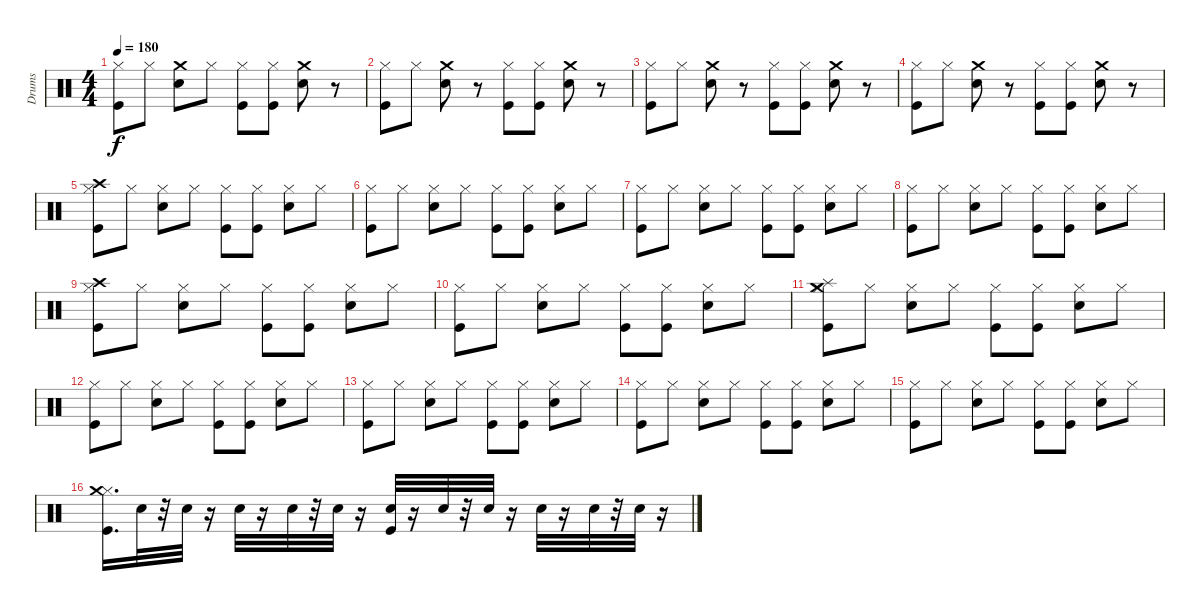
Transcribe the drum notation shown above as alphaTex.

\track ("Drums" "Drums") {instrument percussion}
\staff {score}
\articulation defaults
\ts (4 4)
\tempo 180
\clef neutral
\ks c
("Hi-Hat (closed)" "Kick (hit)").8{dy f} "Hi-Hat (closed)".8 ("Electric Snare (hit)" "Crash medium (hit)").8 "Hi-Hat (closed)".8 ("Kick (hit)" "Hi-Hat (closed)").8 ("Hi-Hat (closed)" "Kick (hit)").8 ("Crash medium (hit)" "Electric Snare (hit)").8 r.8 |
("Hi-Hat (closed)" "Kick (hit)").8 "Hi-Hat (closed)".8 ("Crash medium (hit)" "Electric Snare (hit)").8 r.8 ("Kick (hit)" "Hi-Hat (closed)").8 ("Hi-Hat (closed)" "Kick (hit)").8 ("Crash medium (hit)" "Electric Snare (hit)").8 r.8 |
("Hi-Hat (closed)" "Kick (hit)").8 "Hi-Hat (closed)".8 ("Crash medium (hit)" "Electric Snare (hit)").8 r.8 ("Kick (hit)" "Hi-Hat (closed)").8 ("Hi-Hat (closed)" "Kick (hit)").8 ("Crash medium (hit)" "Electric Snare (hit)").8 r.8 |
("Hi-Hat (closed)" "Kick (hit)").8 "Hi-Hat (closed)".8 ("Electric Snare (hit)" "Crash medium (hit)").8 r.8 ("Kick (hit)" "Hi-Hat (closed)").8 ("Hi-Hat (closed)" "Kick (hit)").8 ("Crash medium (hit)" "Electric Snare (hit)").8 r.8 |
("Crash high (hit)" "Hi-Hat (closed)" "Kick (hit)").8 "Hi-Hat (closed)".8 ("Hi-Hat (closed)" "Electric Snare (hit)").8 "Hi-Hat (closed)".8 ("Kick (hit)" "Hi-Hat (closed)").8 ("Hi-Hat (closed)" "Kick (hit)").8 ("Hi-Hat (closed)" "Electric Snare (hit)").8 "Hi-Hat (closed)".8 |
("Hi-Hat (closed)" "Kick (hit)").8 "Hi-Hat (closed)".8 ("Hi-Hat (closed)" "Electric Snare (hit)").8 "Hi-Hat (closed)".8 ("Kick (hit)" "Hi-Hat (closed)").8 ("Hi-Hat (closed)" "Kick (hit)").8 ("Hi-Hat (closed)" "Electric Snare (hit)").8 "Hi-Hat (closed)".8 |
("Hi-Hat (closed)" "Kick (hit)").8 "Hi-Hat (closed)".8 ("Hi-Hat (closed)" "Electric Snare (hit)").8 "Hi-Hat (closed)".8 ("Kick (hit)" "Hi-Hat (closed)").8 ("Hi-Hat (closed)" "Kick (hit)").8 ("Hi-Hat (closed)" "Electric Snare (hit)").8 "Hi-Hat (closed)".8 |
("Hi-Hat (closed)" "Kick (hit)").8 "Hi-Hat (closed)".8 ("Hi-Hat (closed)" "Electric Snare (hit)").8 "Hi-Hat (closed)".8 ("Kick (hit)" "Hi-Hat (closed)").8 ("Hi-Hat (closed)" "Kick (hit)").8 ("Hi-Hat (closed)" "Electric Snare (hit)").8 "Hi-Hat (closed)".8 |
("Crash high (hit)" "Hi-Hat (closed)" "Kick (hit)").8 "Hi-Hat (closed)".8 ("Hi-Hat (closed)" "Electric Snare (hit)").8 "Hi-Hat (closed)".8 ("Kick (hit)" "Hi-Hat (closed)").8 ("Hi-Hat (closed)" "Kick (hit)").8 ("Hi-Hat (closed)" "Electric Snare (hit)").8 "Hi-Hat (closed)".8 |
("Hi-Hat (closed)" "Kick (hit)").8 "Hi-Hat (closed)".8 ("Hi-Hat (closed)" "Electric Snare (hit)").8 "Hi-Hat (closed)".8 ("Kick (hit)" "Hi-Hat (closed)").8 ("Hi-Hat (closed)" "Kick (hit)").8 ("Hi-Hat (closed)" "Electric Snare (hit)").8 "Hi-Hat (closed)".8 |
("Crash medium (hit)" "Splash (hit)" "Hi-Hat (closed)" "Kick (hit)").8 "Hi-Hat (closed)".8 ("Hi-Hat (closed)" "Electric Snare (hit)").8 "Hi-Hat (closed)".8 ("Kick (hit)" "Hi-Hat (closed)").8 ("Hi-Hat (closed)" "Kick (hit)").8 ("Hi-Hat (closed)" "Electric Snare (hit)").8 "Hi-Hat (closed)".8 |
("Hi-Hat (closed)" "Kick (hit)").8 "Hi-Hat (closed)".8 ("Hi-Hat (closed)" "Electric Snare (hit)").8 "Hi-Hat (closed)".8 ("Kick (hit)" "Hi-Hat (closed)").8 ("Hi-Hat (closed)" "Kick (hit)").8 ("Hi-Hat (closed)" "Electric Snare (hit)").8 "Hi-Hat (closed)".8 |
("Hi-Hat (closed)" "Kick (hit)").8 "Hi-Hat (closed)".8 ("Hi-Hat (closed)" "Electric Snare (hit)").8 "Hi-Hat (closed)".8 ("Kick (hit)" "Hi-Hat (closed)").8 ("Hi-Hat (closed)" "Kick (hit)").8 ("Hi-Hat (closed)" "Electric Snare (hit)").8 "Hi-Hat (closed)".8 |
("Hi-Hat (closed)" "Kick (hit)").8 "Hi-Hat (closed)".8 ("Hi-Hat (closed)" "Electric Snare (hit)").8 "Hi-Hat (closed)".8 ("Kick (hit)" "Hi-Hat (closed)").8 ("Hi-Hat (closed)" "Kick (hit)").8 ("Hi-Hat (closed)" "Electric Snare (hit)").8 "Hi-Hat (closed)".8 |
("Hi-Hat (closed)" "Kick (hit)").8 "Hi-Hat (closed)".8 ("Hi-Hat (closed)" "Electric Snare (hit)").8 "Hi-Hat (closed)".8 ("Kick (hit)" "Hi-Hat (closed)").8 ("Hi-Hat (closed)" "Kick (hit)").8 ("Hi-Hat (closed)" "Electric Snare (hit)").8 "Hi-Hat (closed)".8 |
("Hi-Hat (closed)" "Crash medium (hit)" "Kick (hit)").16{d} "Electric Snare (hit)".32 r.32 "Electric Snare (hit)".32 r.16 "Electric Snare (hit)".32 r.16 "Electric Snare (hit)".32 r.32 "Electric Snare (hit)".32 r.16 ("Kick (hit)" "Electric Snare (hit)").32 r.16 "Electric Snare (hit)".32 r.32 "Electric Snare (hit)".32 r.16 "Electric Snare (hit)".32 r.16 "Electric Snare (hit)".32 r.32 "Electric Snare (hit)".32 r.16
